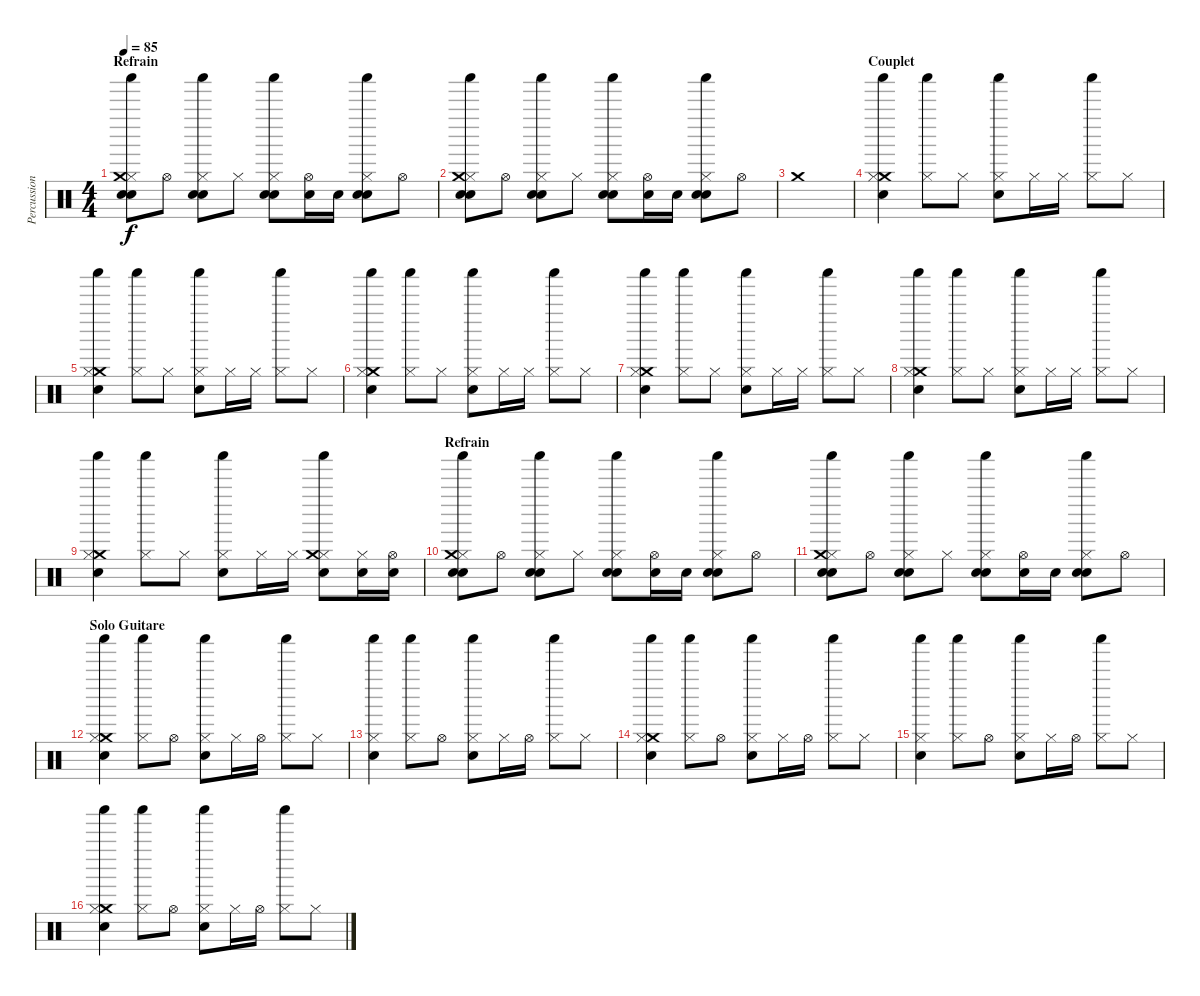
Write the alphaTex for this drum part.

\track ("Percussions" "Percussion") {instrument percussion}
\staff {score}
\articulation defaults
\ts (4 4)
\section ("" "Refrain")
\tempo 85
\clef neutral
\ks c
("Hi-Hat (closed)" "Crash medium (hit)" "Electric Snare (hit)" "Snare (hit) 2" "Shaker (hit)").8{dy f} "Hi-Hat (open)".8 ("Hi-Hat (closed)" "Electric Snare (hit)" "Snare (hit) 2" "Shaker (hit)").8 "Hi-Hat (closed)".8 ("Hi-Hat (closed)" "Electric Snare (hit)" "Snare (hit) 2" "Shaker (hit)").8 ("Hi-Hat (open)" "Electric Snare (hit)").16 "Electric Snare (hit)".16 ("Hi-Hat (closed)" "Electric Snare (hit)" "Snare (hit) 2" "Shaker (hit)").8 "Hi-Hat (open)".8 |
("Hi-Hat (closed)" "Crash medium (hit)" "Electric Snare (hit)" "Snare (hit) 2" "Shaker (hit)").8 "Hi-Hat (open)".8 ("Hi-Hat (closed)" "Electric Snare (hit)" "Snare (hit) 2" "Shaker (hit)").8 "Hi-Hat (closed)".8 ("Hi-Hat (closed)" "Electric Snare (hit)" "Snare (hit) 2" "Shaker (hit)").8 ("Hi-Hat (open)" "Electric Snare (hit)").16 "Electric Snare (hit)".16 ("Hi-Hat (closed)" "Electric Snare (hit)" "Snare (hit) 2" "Shaker (hit)").8 "Hi-Hat (open)".8 |
"Crash medium (hit)".1 |
\section ("" "Couplet")
("Shaker (hit)" "Electric Snare (hit)" "Crash medium (hit)" "Hi-Hat (closed)").4 ("Shaker (hit)" "Hi-Hat (closed)").8 "Hi-Hat (closed)".8 ("Shaker (hit)" "Electric Snare (hit)" "Hi-Hat (closed)").8 "Hi-Hat (closed)".16 "Hi-Hat (closed)".16 ("Shaker (hit)" "Hi-Hat (closed)").8 "Hi-Hat (closed)".8 |
("Shaker (hit)" "Electric Snare (hit)" "Crash medium (hit)" "Hi-Hat (closed)").4 ("Shaker (hit)" "Hi-Hat (closed)").8 "Hi-Hat (closed)".8 ("Shaker (hit)" "Electric Snare (hit)" "Hi-Hat (closed)").8 "Hi-Hat (closed)".16 "Hi-Hat (closed)".16 ("Shaker (hit)" "Hi-Hat (closed)").8 "Hi-Hat (closed)".8 |
("Shaker (hit)" "Electric Snare (hit)" "Crash medium (hit)" "Hi-Hat (closed)").4 ("Shaker (hit)" "Hi-Hat (closed)").8 "Hi-Hat (closed)".8 ("Shaker (hit)" "Electric Snare (hit)" "Hi-Hat (closed)").8 "Hi-Hat (closed)".16 "Hi-Hat (closed)".16 ("Shaker (hit)" "Hi-Hat (closed)").8 "Hi-Hat (closed)".8 |
("Shaker (hit)" "Electric Snare (hit)" "Crash medium (hit)" "Hi-Hat (closed)").4 ("Shaker (hit)" "Hi-Hat (closed)").8 "Hi-Hat (closed)".8 ("Shaker (hit)" "Electric Snare (hit)" "Hi-Hat (closed)").8 "Hi-Hat (closed)".16 "Hi-Hat (closed)".16 ("Shaker (hit)" "Hi-Hat (closed)").8 "Hi-Hat (closed)".8 |
("Shaker (hit)" "Electric Snare (hit)" "Crash medium (hit)" "Hi-Hat (closed)").4 ("Shaker (hit)" "Hi-Hat (closed)").8 "Hi-Hat (closed)".8 ("Shaker (hit)" "Electric Snare (hit)" "Hi-Hat (closed)").8 "Hi-Hat (closed)".16 "Hi-Hat (closed)".16 ("Shaker (hit)" "Hi-Hat (closed)").8 "Hi-Hat (closed)".8 |
("Shaker (hit)" "Electric Snare (hit)" "Crash medium (hit)" "Hi-Hat (closed)").4 ("Shaker (hit)" "Hi-Hat (closed)").8 "Hi-Hat (closed)".8 ("Shaker (hit)" "Electric Snare (hit)" "Hi-Hat (closed)").8 "Hi-Hat (closed)".16 "Hi-Hat (closed)".16 ("Shaker (hit)" "Hi-Hat (closed)" "Electric Snare (hit)" "Crash medium (hit)").8 ("Hi-Hat (closed)" "Electric Snare (hit)").16 ("Hi-Hat (open)" "Electric Snare (hit)").16 |
\section ("" "Refrain")
("Hi-Hat (closed)" "Crash medium (hit)" "Electric Snare (hit)" "Snare (hit) 2" "Shaker (hit)").8 "Hi-Hat (open)".8 ("Hi-Hat (closed)" "Electric Snare (hit)" "Snare (hit) 2" "Shaker (hit)").8 "Hi-Hat (closed)".8 ("Hi-Hat (closed)" "Electric Snare (hit)" "Snare (hit) 2" "Shaker (hit)").8 ("Hi-Hat (open)" "Electric Snare (hit)").16 "Electric Snare (hit)".16 ("Hi-Hat (closed)" "Electric Snare (hit)" "Snare (hit) 2" "Shaker (hit)").8 "Hi-Hat (open)".8 |
("Hi-Hat (closed)" "Crash medium (hit)" "Electric Snare (hit)" "Snare (hit) 2" "Shaker (hit)").8 "Hi-Hat (open)".8 ("Hi-Hat (closed)" "Electric Snare (hit)" "Snare (hit) 2" "Shaker (hit)").8 "Hi-Hat (closed)".8 ("Hi-Hat (closed)" "Electric Snare (hit)" "Snare (hit) 2" "Shaker (hit)").8 ("Hi-Hat (open)" "Electric Snare (hit)").16 "Electric Snare (hit)".16 ("Hi-Hat (closed)" "Electric Snare (hit)" "Snare (hit) 2" "Shaker (hit)").8 "Hi-Hat (open)".8 |
\section ("" "Solo Guitare")
("Shaker (hit)" "Electric Snare (hit)" "Crash medium (hit)" "Hi-Hat (closed)").4 ("Shaker (hit)" "Hi-Hat (closed)").8 "Hi-Hat (open)".8 ("Shaker (hit)" "Electric Snare (hit)" "Hi-Hat (closed)").8 "Hi-Hat (closed)".16 "Hi-Hat (open)".16 ("Shaker (hit)" "Hi-Hat (closed)").8 "Hi-Hat (closed)".8 |
("Shaker (hit)" "Electric Snare (hit)" "Hi-Hat (closed)").4 ("Shaker (hit)" "Hi-Hat (closed)").8 "Hi-Hat (open)".8 ("Shaker (hit)" "Electric Snare (hit)" "Hi-Hat (closed)").8 "Hi-Hat (closed)".16 "Hi-Hat (open)".16 ("Shaker (hit)" "Hi-Hat (closed)").8 "Hi-Hat (closed)".8 |
("Shaker (hit)" "Electric Snare (hit)" "Crash medium (hit)" "Hi-Hat (closed)").4 ("Shaker (hit)" "Hi-Hat (closed)").8 "Hi-Hat (open)".8 ("Shaker (hit)" "Electric Snare (hit)" "Hi-Hat (closed)").8 "Hi-Hat (closed)".16 "Hi-Hat (open)".16 ("Shaker (hit)" "Hi-Hat (closed)").8 "Hi-Hat (closed)".8 |
("Shaker (hit)" "Electric Snare (hit)" "Hi-Hat (closed)").4 ("Shaker (hit)" "Hi-Hat (closed)").8 "Hi-Hat (open)".8 ("Shaker (hit)" "Electric Snare (hit)" "Hi-Hat (closed)").8 "Hi-Hat (closed)".16 "Hi-Hat (open)".16 ("Shaker (hit)" "Hi-Hat (closed)").8 "Hi-Hat (closed)".8 |
("Shaker (hit)" "Electric Snare (hit)" "Crash medium (hit)" "Hi-Hat (closed)").4 ("Shaker (hit)" "Hi-Hat (closed)").8 "Hi-Hat (open)".8 ("Shaker (hit)" "Electric Snare (hit)" "Hi-Hat (closed)").8 "Hi-Hat (closed)".16 "Hi-Hat (open)".16 ("Shaker (hit)" "Hi-Hat (closed)").8 "Hi-Hat (closed)".8
